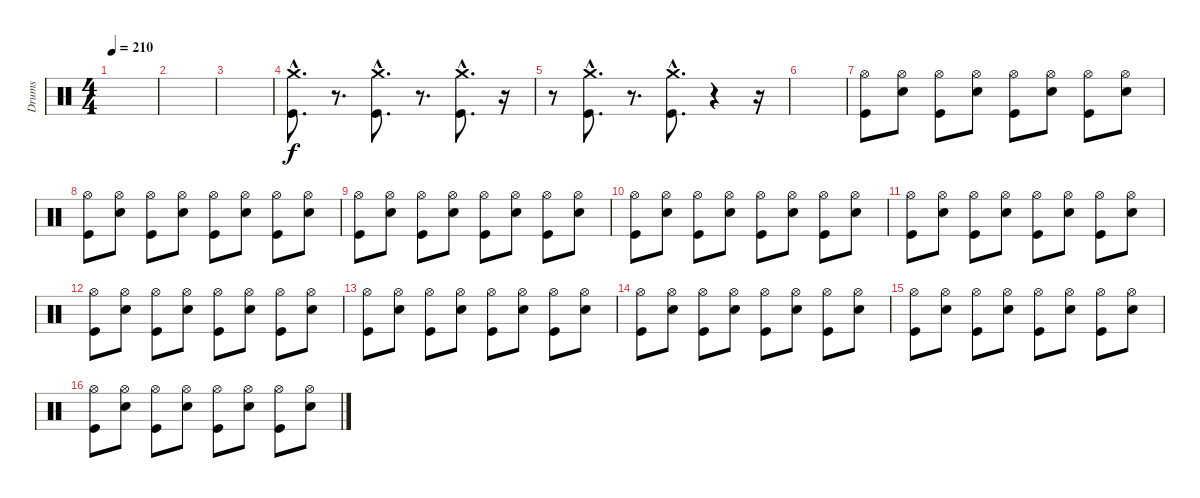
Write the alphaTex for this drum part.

\track ("Drums" "Drums") {instrument percussion}
\staff {score}
\articulation defaults
\ts (4 4)
\tempo 210
\clef neutral
\ks c
|
|
|
("Crash medium (hit)"{hac} "Kick (hit)"{hac}).8{d} r.8{d} ("Crash medium (hit)"{hac} "Kick (hit)"{hac}).8{d} r.8{d} ("Crash medium (hit)"{hac} "Kick (hit)"{hac}).8{d} r.16 |
r.8 ("Crash medium (hit)"{hac} "Kick (hit)"{hac}).8{d} r.8{d} ("Crash medium (hit)"{hac} "Kick (hit)"{hac}).8{d} r.4 r.16 |
|
("Hi-Hat (open)" "Kick (hit)").8 ("Electric Snare (hit)" "Hi-Hat (open)").8 ("Hi-Hat (open)" "Kick (hit)").8 ("Electric Snare (hit)" "Hi-Hat (open)").8 ("Hi-Hat (open)" "Kick (hit)").8 ("Electric Snare (hit)" "Hi-Hat (open)").8 ("Hi-Hat (open)" "Kick (hit)").8 ("Electric Snare (hit)" "Hi-Hat (open)").8 |
("Hi-Hat (open)" "Kick (hit)").8 ("Electric Snare (hit)" "Hi-Hat (open)").8 ("Hi-Hat (open)" "Kick (hit)").8 ("Electric Snare (hit)" "Hi-Hat (open)").8 ("Hi-Hat (open)" "Kick (hit)").8 ("Electric Snare (hit)" "Hi-Hat (open)").8 ("Hi-Hat (open)" "Kick (hit)").8 ("Electric Snare (hit)" "Hi-Hat (open)").8 |
("Hi-Hat (open)" "Kick (hit)").8 ("Electric Snare (hit)" "Hi-Hat (open)").8 ("Hi-Hat (open)" "Kick (hit)").8 ("Electric Snare (hit)" "Hi-Hat (open)").8 ("Hi-Hat (open)" "Kick (hit)").8 ("Electric Snare (hit)" "Hi-Hat (open)").8 ("Hi-Hat (open)" "Kick (hit)").8 ("Electric Snare (hit)" "Hi-Hat (open)").8 |
("Hi-Hat (open)" "Kick (hit)").8 ("Electric Snare (hit)" "Hi-Hat (open)").8 ("Hi-Hat (open)" "Kick (hit)").8 ("Electric Snare (hit)" "Hi-Hat (open)").8 ("Hi-Hat (open)" "Kick (hit)").8 ("Electric Snare (hit)" "Hi-Hat (open)").8 ("Hi-Hat (open)" "Kick (hit)").8 ("Electric Snare (hit)" "Hi-Hat (open)").8 |
("Hi-Hat (open)" "Kick (hit)").8 ("Electric Snare (hit)" "Hi-Hat (open)").8 ("Hi-Hat (open)" "Kick (hit)").8 ("Electric Snare (hit)" "Hi-Hat (open)").8 ("Hi-Hat (open)" "Kick (hit)").8 ("Electric Snare (hit)" "Hi-Hat (open)").8 ("Hi-Hat (open)" "Kick (hit)").8 ("Electric Snare (hit)" "Hi-Hat (open)").8 |
("Hi-Hat (open)" "Kick (hit)").8 ("Electric Snare (hit)" "Hi-Hat (open)").8 ("Hi-Hat (open)" "Kick (hit)").8 ("Electric Snare (hit)" "Hi-Hat (open)").8 ("Hi-Hat (open)" "Kick (hit)").8 ("Electric Snare (hit)" "Hi-Hat (open)").8 ("Hi-Hat (open)" "Kick (hit)").8 ("Electric Snare (hit)" "Hi-Hat (open)").8 |
("Hi-Hat (open)" "Kick (hit)").8 ("Electric Snare (hit)" "Hi-Hat (open)").8 ("Hi-Hat (open)" "Kick (hit)").8 ("Electric Snare (hit)" "Hi-Hat (open)").8 ("Hi-Hat (open)" "Kick (hit)").8 ("Electric Snare (hit)" "Hi-Hat (open)").8 ("Hi-Hat (open)" "Kick (hit)").8 ("Electric Snare (hit)" "Hi-Hat (open)").8 |
("Hi-Hat (open)" "Kick (hit)").8 ("Electric Snare (hit)" "Hi-Hat (open)").8 ("Hi-Hat (open)" "Kick (hit)").8 ("Electric Snare (hit)" "Hi-Hat (open)").8 ("Hi-Hat (open)" "Kick (hit)").8 ("Electric Snare (hit)" "Hi-Hat (open)").8 ("Hi-Hat (open)" "Kick (hit)").8 ("Electric Snare (hit)" "Hi-Hat (open)").8 |
("Hi-Hat (open)" "Kick (hit)").8 ("Electric Snare (hit)" "Hi-Hat (open)").8 ("Hi-Hat (open)" "Kick (hit)").8 ("Electric Snare (hit)" "Hi-Hat (open)").8 ("Hi-Hat (open)" "Kick (hit)").8 ("Electric Snare (hit)" "Hi-Hat (open)").8 ("Hi-Hat (open)" "Kick (hit)").8 ("Electric Snare (hit)" "Hi-Hat (open)").8 |
("Hi-Hat (open)" "Kick (hit)").8 ("Electric Snare (hit)" "Hi-Hat (open)").8 ("Hi-Hat (open)" "Kick (hit)").8 ("Electric Snare (hit)" "Hi-Hat (open)").8 ("Hi-Hat (open)" "Kick (hit)").8 ("Electric Snare (hit)" "Hi-Hat (open)").8 ("Hi-Hat (open)" "Kick (hit)").8 ("Electric Snare (hit)" "Hi-Hat (open)").8
